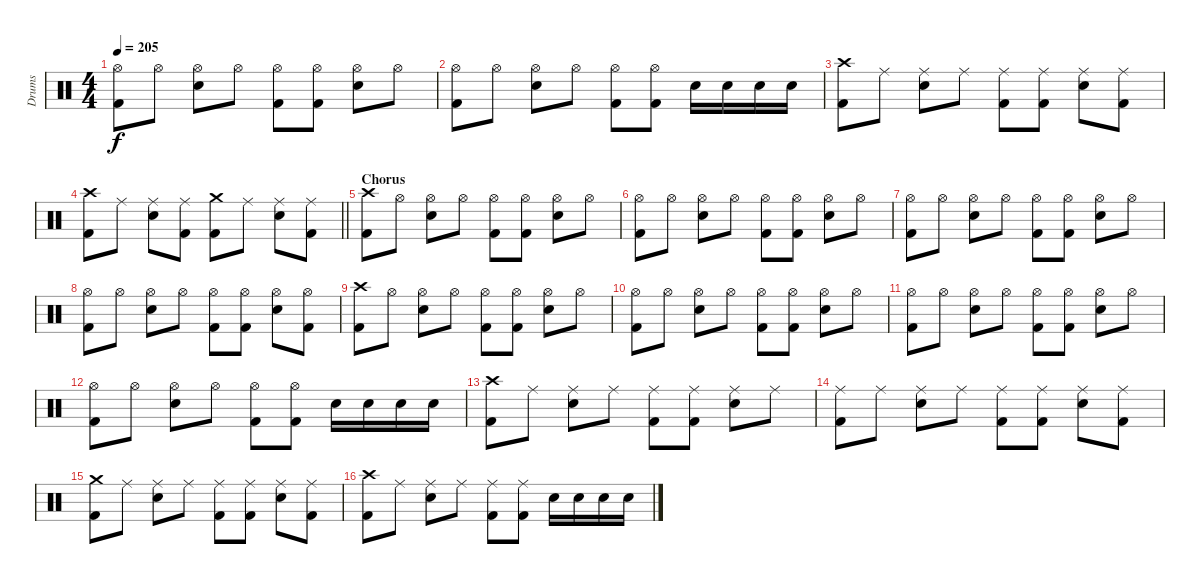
\track ("Drums" "Drums") {instrument percussion}
\staff {score}
\articulation defaults
\ts (4 4)
\tempo 205
\clef neutral
\ks c
("Hi-Hat (open)" "Kick (hit) 2").8{dy f} "Hi-Hat (open)".8 ("Hi-Hat (open)" "Electric Snare (hit)").8 "Hi-Hat (open)".8 ("Hi-Hat (open)" "Kick (hit) 2").8 ("Hi-Hat (open)" "Kick (hit) 2").8 ("Hi-Hat (open)" "Electric Snare (hit)").8 "Hi-Hat (open)".8 |
("Hi-Hat (open)" "Kick (hit) 2").8 "Hi-Hat (open)".8 ("Hi-Hat (open)" "Electric Snare (hit)").8 "Hi-Hat (open)".8 ("Hi-Hat (open)" "Kick (hit) 2").8 ("Hi-Hat (open)" "Kick (hit) 2").8 "Electric Snare (hit)".16 "Electric Snare (hit)".16 "Electric Snare (hit)".16 "Electric Snare (hit)".16 |
("Crash high (hit)" "Kick (hit) 2").8 "Ride (middle)".8 ("Ride (middle)" "Electric Snare (hit)").8 "Ride (middle)".8 ("Ride (middle)" "Kick (hit) 2").8 ("Ride (middle)" "Kick (hit) 2").8 ("Ride (middle)" "Electric Snare (hit)").8 ("Ride (middle)" "Kick (hit) 2").8 |
\barLineRight lightlight
("Crash high (hit)" "Kick (hit) 2").8 "Ride (middle)".8 ("Ride (middle)" "Electric Snare (hit)").8 ("Ride (middle)" "Kick (hit) 2").8 ("Crash medium (hit)" "Kick (hit) 2").8 "Ride (middle)".8 ("Ride (middle)" "Electric Snare (hit)").8 ("Ride (middle)" "Kick (hit) 2").8 |
\section ("" "Chorus")
("Crash high (hit)" "Kick (hit) 2").8 "Hi-Hat (open)".8 ("Hi-Hat (open)" "Electric Snare (hit)").8 "Hi-Hat (open)".8 ("Hi-Hat (open)" "Kick (hit) 2").8 ("Hi-Hat (open)" "Kick (hit) 2").8 ("Hi-Hat (open)" "Electric Snare (hit)").8 "Hi-Hat (open)".8 |
("Hi-Hat (open)" "Kick (hit) 2").8 "Hi-Hat (open)".8 ("Hi-Hat (open)" "Electric Snare (hit)").8 "Hi-Hat (open)".8 ("Hi-Hat (open)" "Kick (hit) 2").8 ("Hi-Hat (open)" "Kick (hit) 2").8 ("Hi-Hat (open)" "Electric Snare (hit)").8 "Hi-Hat (open)".8 |
("Hi-Hat (open)" "Kick (hit) 2").8 "Hi-Hat (open)".8 ("Hi-Hat (open)" "Electric Snare (hit)").8 "Hi-Hat (open)".8 ("Hi-Hat (open)" "Kick (hit) 2").8 ("Hi-Hat (open)" "Kick (hit) 2").8 ("Hi-Hat (open)" "Electric Snare (hit)").8 "Hi-Hat (open)".8 |
("Hi-Hat (open)" "Kick (hit) 2").8 "Hi-Hat (open)".8 ("Hi-Hat (open)" "Electric Snare (hit)").8 "Hi-Hat (open)".8 ("Hi-Hat (open)" "Kick (hit) 2").8 ("Hi-Hat (open)" "Kick (hit) 2").8 ("Hi-Hat (open)" "Electric Snare (hit)").8 ("Hi-Hat (open)" "Kick (hit) 2").8 |
("Crash high (hit)" "Kick (hit) 2").8 "Hi-Hat (open)".8 ("Hi-Hat (open)" "Electric Snare (hit)").8 "Hi-Hat (open)".8 ("Hi-Hat (open)" "Kick (hit) 2").8 ("Hi-Hat (open)" "Kick (hit) 2").8 ("Hi-Hat (open)" "Electric Snare (hit)").8 "Hi-Hat (open)".8 |
("Hi-Hat (open)" "Kick (hit) 2").8 "Hi-Hat (open)".8 ("Hi-Hat (open)" "Electric Snare (hit)").8 "Hi-Hat (open)".8 ("Hi-Hat (open)" "Kick (hit) 2").8 ("Hi-Hat (open)" "Kick (hit) 2").8 ("Hi-Hat (open)" "Electric Snare (hit)").8 "Hi-Hat (open)".8 |
("Hi-Hat (open)" "Kick (hit) 2").8 "Hi-Hat (open)".8 ("Hi-Hat (open)" "Electric Snare (hit)").8 "Hi-Hat (open)".8 ("Hi-Hat (open)" "Kick (hit) 2").8 ("Hi-Hat (open)" "Kick (hit) 2").8 ("Hi-Hat (open)" "Electric Snare (hit)").8 "Hi-Hat (open)".8 |
("Hi-Hat (open)" "Kick (hit) 2").8 "Hi-Hat (open)".8 ("Hi-Hat (open)" "Electric Snare (hit)").8 "Hi-Hat (open)".8 ("Hi-Hat (open)" "Kick (hit) 2").8 ("Hi-Hat (open)" "Kick (hit) 2").8 "Electric Snare (hit)".16 "Electric Snare (hit)".16 "Electric Snare (hit)".16 "Electric Snare (hit)".16 |
("Crash high (hit)" "Kick (hit) 2").8 "Ride (middle)".8 ("Ride (middle)" "Electric Snare (hit)").8 "Ride (middle)".8 ("Ride (middle)" "Kick (hit) 2").8 ("Ride (middle)" "Kick (hit) 2").8 ("Ride (middle)" "Electric Snare (hit)").8 "Ride (middle)".8 |
("Ride (middle)" "Kick (hit) 2").8 "Ride (middle)".8 ("Ride (middle)" "Electric Snare (hit)").8 "Ride (middle)".8 ("Ride (middle)" "Kick (hit) 2").8 ("Ride (middle)" "Kick (hit) 2").8 ("Ride (middle)" "Electric Snare (hit)").8 ("Ride (middle)" "Kick (hit) 2").8 |
("Crash medium (hit)" "Kick (hit) 2").8 "Ride (middle)".8 ("Ride (middle)" "Electric Snare (hit)").8 "Ride (middle)".8 ("Ride (middle)" "Kick (hit) 2").8 ("Ride (middle)" "Kick (hit) 2").8 ("Ride (middle)" "Electric Snare (hit)").8 ("Ride (middle)" "Kick (hit) 2").8 |
("Crash high (hit)" "Kick (hit) 2").8 "Ride (middle)".8 ("Ride (middle)" "Electric Snare (hit)").8 "Ride (middle)".8 ("Ride (middle)" "Kick (hit) 2").8 ("Ride (middle)" "Kick (hit) 2").8 "Electric Snare (hit)".16 "Electric Snare (hit)".16 "Electric Snare (hit)".16 "Electric Snare (hit)".16
